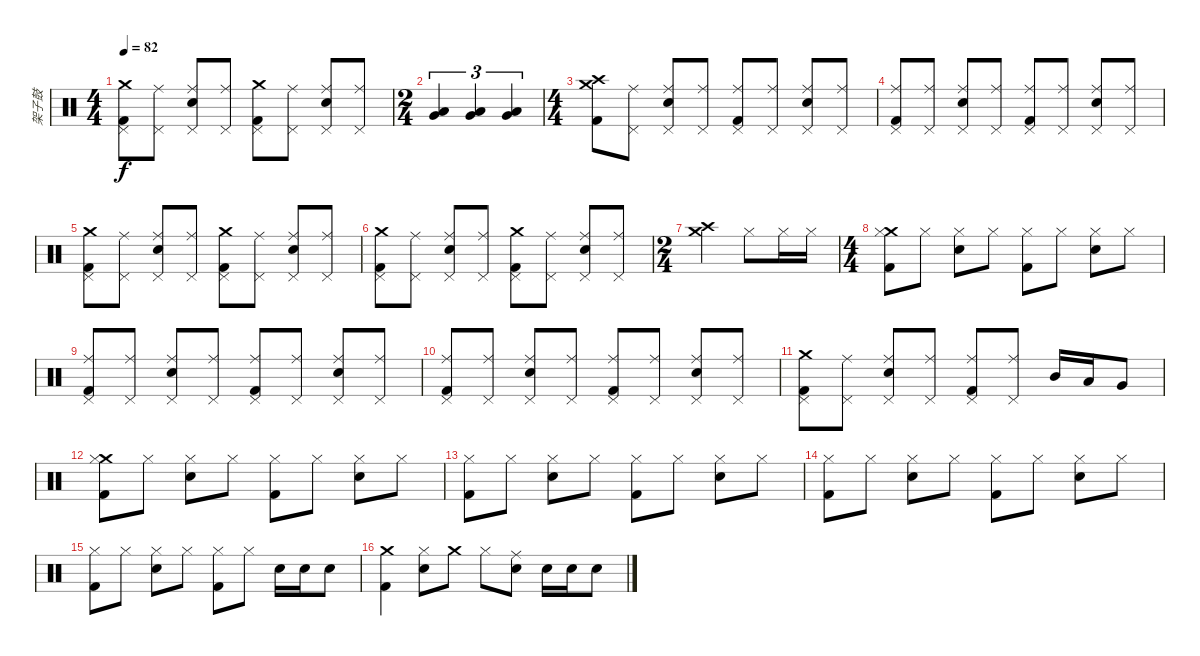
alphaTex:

\track ("架子鼓" "架子鼓") {instrument percussion}
\staff {score}
\articulation defaults
\ts (4 4)
\tempo 82
\clef neutral
\ks c
("Crash medium (hit)" "Pedal Hi-Hat (hit)" "Kick (hit) 2").8{dy f} ("Ride (middle)" "Pedal Hi-Hat (hit)").8 ("Ride (middle)" "Pedal Hi-Hat (hit)" "Snare (hit) 2").8 ("Ride (middle)" "Pedal Hi-Hat (hit)").8 ("Crash medium (hit)" "Pedal Hi-Hat (hit)" "Kick (hit) 2").8 ("Ride (middle)" "Pedal Hi-Hat (hit)").8 ("Ride (middle)" "Pedal Hi-Hat (hit)" "Snare (hit) 2").8 ("Ride (middle)" "Pedal Hi-Hat (hit)").8 |
\ts (2 4)
("Low Tom (hit)" "Very Low Tom (hit)").4{tu (3 2)} ("Low Tom (hit)" "Very Low Tom (hit)").4{tu (3 2)} ("Low Tom (hit)" "Very Low Tom (hit)").4{tu (3 2)} |
\ts (4 4)
("Crash medium (hit)" "Crash high (hit)" "Kick (hit) 2").8 ("Ride (middle)" "Pedal Hi-Hat (hit)").8 ("Ride (middle)" "Pedal Hi-Hat (hit)" "Snare (hit) 2").8 ("Ride (middle)" "Pedal Hi-Hat (hit)").8 ("Ride (middle)" "Pedal Hi-Hat (hit)" "Kick (hit) 2").8 ("Ride (middle)" "Pedal Hi-Hat (hit)").8 ("Ride (middle)" "Pedal Hi-Hat (hit)" "Snare (hit) 2").8 ("Ride (middle)" "Pedal Hi-Hat (hit)").8 |
("Ride (middle)" "Pedal Hi-Hat (hit)" "Kick (hit) 2").8 ("Ride (middle)" "Pedal Hi-Hat (hit)").8 ("Ride (middle)" "Pedal Hi-Hat (hit)" "Snare (hit) 2").8 ("Ride (middle)" "Pedal Hi-Hat (hit)").8 ("Ride (middle)" "Pedal Hi-Hat (hit)" "Kick (hit) 2").8 ("Ride (middle)" "Pedal Hi-Hat (hit)").8 ("Ride (middle)" "Pedal Hi-Hat (hit)" "Snare (hit) 2").8 ("Ride (middle)" "Pedal Hi-Hat (hit)").8 |
("Crash medium (hit)" "Pedal Hi-Hat (hit)" "Kick (hit) 2").8 ("Ride (middle)" "Pedal Hi-Hat (hit)").8 ("Ride (middle)" "Pedal Hi-Hat (hit)" "Snare (hit) 2").8 ("Ride (middle)" "Pedal Hi-Hat (hit)").8 ("Crash medium (hit)" "Pedal Hi-Hat (hit)" "Kick (hit) 2").8 ("Ride (middle)" "Pedal Hi-Hat (hit)").8 ("Ride (middle)" "Pedal Hi-Hat (hit)" "Snare (hit) 2").8 ("Ride (middle)" "Pedal Hi-Hat (hit)").8 |
("Crash medium (hit)" "Pedal Hi-Hat (hit)" "Kick (hit) 2").8 ("Ride (middle)" "Pedal Hi-Hat (hit)").8 ("Ride (middle)" "Pedal Hi-Hat (hit)" "Snare (hit) 2").8 ("Ride (middle)" "Pedal Hi-Hat (hit)").8 ("Crash medium (hit)" "Pedal Hi-Hat (hit)" "Kick (hit) 2").8 ("Ride (middle)" "Pedal Hi-Hat (hit)").8 ("Ride (middle)" "Pedal Hi-Hat (hit)" "Snare (hit) 2").8 ("Ride (middle)" "Pedal Hi-Hat (hit)").8 |
\ts (2 4)
("Crash medium (hit)" "Crash high (hit)").4 "Hi-Hat (closed)".8 "Hi-Hat (closed)".16 "Hi-Hat (closed)".16 |
\ts (4 4)
("Crash medium (hit)" "Hi-Hat (closed)" "Kick (hit) 2").8 "Hi-Hat (closed)".8 ("Hi-Hat (closed)" "Snare (hit) 2").8 "Hi-Hat (closed)".8 ("Hi-Hat (closed)" "Kick (hit) 2").8 "Hi-Hat (closed)".8 ("Hi-Hat (closed)" "Snare (hit) 2").8 "Hi-Hat (closed)".8 |
("Ride (middle)" "Pedal Hi-Hat (hit)" "Kick (hit) 2").8 ("Ride (middle)" "Pedal Hi-Hat (hit)").8 ("Ride (middle)" "Pedal Hi-Hat (hit)" "Snare (hit) 2").8 ("Ride (middle)" "Pedal Hi-Hat (hit)").8 ("Ride (middle)" "Pedal Hi-Hat (hit)" "Kick (hit) 2").8 ("Ride (middle)" "Pedal Hi-Hat (hit)").8 ("Ride (middle)" "Pedal Hi-Hat (hit)" "Snare (hit) 2").8 ("Ride (middle)" "Pedal Hi-Hat (hit)").8 |
("Ride (middle)" "Pedal Hi-Hat (hit)" "Kick (hit) 2").8 ("Ride (middle)" "Pedal Hi-Hat (hit)").8 ("Ride (middle)" "Pedal Hi-Hat (hit)" "Snare (hit) 2").8 ("Ride (middle)" "Pedal Hi-Hat (hit)").8 ("Ride (middle)" "Pedal Hi-Hat (hit)" "Kick (hit) 2").8 ("Ride (middle)" "Pedal Hi-Hat (hit)").8 ("Ride (middle)" "Pedal Hi-Hat (hit)" "Snare (hit) 2").8 ("Ride (middle)" "Pedal Hi-Hat (hit)").8 |
("Crash medium (hit)" "Pedal Hi-Hat (hit)" "Kick (hit) 2").8 ("Ride (middle)" "Pedal Hi-Hat (hit)").8 ("Ride (middle)" "Pedal Hi-Hat (hit)" "Snare (hit) 2").8 ("Ride (middle)" "Pedal Hi-Hat (hit)").8 ("Ride (middle)" "Pedal Hi-Hat (hit)" "Kick (hit) 2").8 ("Ride (middle)" "Pedal Hi-Hat (hit)").8 "Mid Tom (hit)".16 "Low Tom (hit)".16 "Very Low Tom (hit)".8 |
("Crash medium (hit)" "Hi-Hat (closed)" "Kick (hit) 2").8 "Hi-Hat (closed)".8 ("Hi-Hat (closed)" "Snare (hit) 2").8 "Hi-Hat (closed)".8 ("Hi-Hat (closed)" "Kick (hit) 2").8 "Hi-Hat (closed)".8 ("Hi-Hat (closed)" "Snare (hit) 2").8 "Hi-Hat (closed)".8 |
("Hi-Hat (closed)" "Kick (hit) 2").8 "Hi-Hat (closed)".8 ("Hi-Hat (closed)" "Snare (hit) 2").8 "Hi-Hat (closed)".8 ("Hi-Hat (closed)" "Kick (hit) 2").8 "Hi-Hat (closed)".8 ("Hi-Hat (closed)" "Snare (hit) 2").8 "Hi-Hat (closed)".8 |
("Hi-Hat (closed)" "Kick (hit) 2").8 "Hi-Hat (closed)".8 ("Hi-Hat (closed)" "Snare (hit) 2").8 "Hi-Hat (closed)".8 ("Hi-Hat (closed)" "Kick (hit) 2").8 "Hi-Hat (closed)".8 ("Hi-Hat (closed)" "Snare (hit) 2").8 "Hi-Hat (closed)".8 |
("Hi-Hat (closed)" "Kick (hit) 2").8 "Hi-Hat (closed)".8 ("Hi-Hat (closed)" "Snare (hit) 2").8 "Hi-Hat (closed)".8 ("Hi-Hat (closed)" "Kick (hit) 2").8 "Hi-Hat (closed)".8 "Snare (hit) 2".16 "Snare (hit) 2".16 "Snare (hit) 2".8 |
("Crash medium (hit)" "Kick (hit) 2").4 ("Hi-Hat (closed)" "Snare (hit) 2").8 "Crash medium (hit)".8 "Hi-Hat (closed)".8 ("Ride (middle)" "Snare (hit) 2").8 "Snare (hit) 2".16 "Snare (hit) 2".16 "Snare (hit) 2".8
